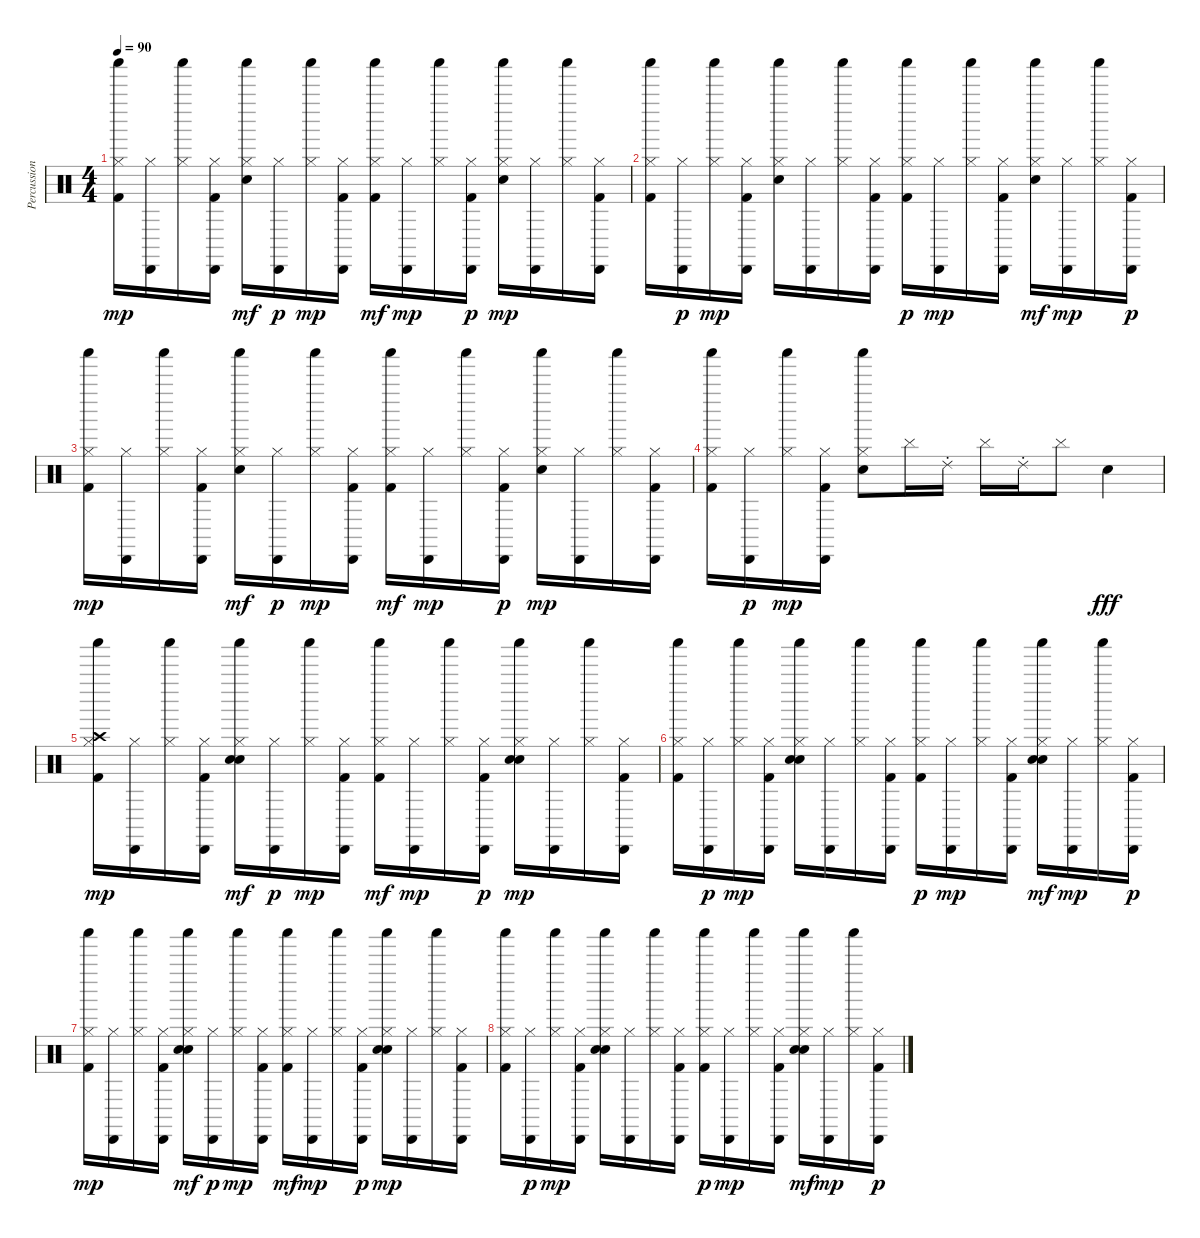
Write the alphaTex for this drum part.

\track ("Percussions" "Percussion") {instrument percussion}
\staff {score}
\articulation defaults
\ts (4 4)
\tempo 90
\clef neutral
\ks c
("Kick (hit) 2" "Hi-Hat (closed)" "Shaker (hit)").16{dy mp} ("Hi-Hat (closed)" "Cabasa (hit)").16 ("Hi-Hat (closed)" "Shaker (hit)").16 ("Kick (hit) 2" "Hi-Hat (closed)" "Cabasa (hit)").16 ("Electric Snare (hit)" "Hi-Hat (closed)" "Shaker (hit)").16{dy mf} ("Hi-Hat (closed)" "Cabasa (hit)").16{dy p} ("Hi-Hat (closed)" "Shaker (hit)").16{dy mp} ("Kick (hit) 2" "Hi-Hat (closed)" "Cabasa (hit)").16 ("Kick (hit) 2" "Hi-Hat (closed)" "Shaker (hit)").16{dy mf} ("Hi-Hat (closed)" "Cabasa (hit)").16{dy mp} ("Hi-Hat (closed)" "Shaker (hit)").16 ("Kick (hit) 2" "Hi-Hat (closed)" "Cabasa (hit)").16{dy p} ("Electric Snare (hit)" "Hi-Hat (closed)" "Shaker (hit)").16{dy mp} ("Hi-Hat (closed)" "Cabasa (hit)").16 ("Hi-Hat (closed)" "Shaker (hit)").16 ("Kick (hit) 2" "Hi-Hat (closed)" "Cabasa (hit)").16 |
("Kick (hit) 2" "Hi-Hat (closed)" "Shaker (hit)").16 ("Hi-Hat (closed)" "Cabasa (hit)").16{dy p} ("Hi-Hat (closed)" "Shaker (hit)").16{dy mp} ("Kick (hit) 2" "Hi-Hat (closed)" "Cabasa (hit)").16 ("Electric Snare (hit)" "Hi-Hat (closed)" "Shaker (hit)").16 ("Hi-Hat (closed)" "Cabasa (hit)").16 ("Hi-Hat (closed)" "Shaker (hit)").16 ("Kick (hit) 2" "Hi-Hat (closed)" "Cabasa (hit)").16 ("Kick (hit) 2" "Hi-Hat (closed)" "Shaker (hit)").16{dy p} ("Hi-Hat (closed)" "Cabasa (hit)").16{dy mp} ("Hi-Hat (closed)" "Shaker (hit)").16 ("Kick (hit) 2" "Hi-Hat (closed)" "Cabasa (hit)").16 ("Electric Snare (hit)" "Hi-Hat (closed)" "Shaker (hit)").16{dy mf} ("Hi-Hat (closed)" "Cabasa (hit)").16{dy mp} ("Hi-Hat (closed)" "Shaker (hit)").16 ("Kick (hit) 2" "Hi-Hat (closed)" "Cabasa (hit)").16{dy p} |
("Kick (hit) 2" "Hi-Hat (closed)" "Shaker (hit)").16{dy mp} ("Hi-Hat (closed)" "Cabasa (hit)").16 ("Hi-Hat (closed)" "Shaker (hit)").16 ("Kick (hit) 2" "Hi-Hat (closed)" "Cabasa (hit)").16 ("Electric Snare (hit)" "Hi-Hat (closed)" "Shaker (hit)").16{dy mf} ("Hi-Hat (closed)" "Cabasa (hit)").16{dy p} ("Hi-Hat (closed)" "Shaker (hit)").16{dy mp} ("Kick (hit) 2" "Hi-Hat (closed)" "Cabasa (hit)").16 ("Kick (hit) 2" "Hi-Hat (closed)" "Shaker (hit)").16{dy mf} ("Hi-Hat (closed)" "Cabasa (hit)").16{dy mp} ("Hi-Hat (closed)" "Shaker (hit)").16 ("Kick (hit) 2" "Hi-Hat (closed)" "Cabasa (hit)").16{dy p} ("Electric Snare (hit)" "Hi-Hat (closed)" "Shaker (hit)").16{dy mp} ("Hi-Hat (closed)" "Cabasa (hit)").16 ("Hi-Hat (closed)" "Shaker (hit)").16 ("Kick (hit) 2" "Hi-Hat (closed)" "Cabasa (hit)").16 |
("Kick (hit) 2" "Hi-Hat (closed)" "Shaker (hit)").16 ("Hi-Hat (closed)" "Cabasa (hit)").16{dy p} ("Hi-Hat (closed)" "Shaker (hit)").16{dy mp} ("Kick (hit) 2" "Hi-Hat (closed)" "Cabasa (hit)").16 ("Electric Snare (hit)" "Hi-Hat (closed)" "Shaker (hit)").8 "Cymbal (hit)".16 "Ride (choke) 2".16 "Cymbal (hit)".16 "Ride (choke) 2".16 "Cymbal (hit)".8 "Electric Snare (hit)".4{dy fff} |
("Kick (hit) 2" "Hi-Hat (closed)" "Crash high (hit)" "Shaker (hit)").16{dy mp} ("Hi-Hat (closed)" "Cabasa (hit)").16 ("Hi-Hat (closed)" "Shaker (hit)").16 ("Kick (hit) 2" "Hi-Hat (closed)" "Cabasa (hit)").16 ("Hand Clap (hit)" "Electric Snare (hit)" "Hi-Hat (closed)" "Shaker (hit)").16{dy mf} ("Hi-Hat (closed)" "Cabasa (hit)").16{dy p} ("Hi-Hat (closed)" "Shaker (hit)").16{dy mp} ("Kick (hit) 2" "Hi-Hat (closed)" "Cabasa (hit)").16 ("Kick (hit) 2" "Hi-Hat (closed)" "Shaker (hit)").16{dy mf} ("Hi-Hat (closed)" "Cabasa (hit)").16{dy mp} ("Hi-Hat (closed)" "Shaker (hit)").16 ("Kick (hit) 2" "Hi-Hat (closed)" "Cabasa (hit)").16{dy p} ("Hand Clap (hit)" "Electric Snare (hit)" "Hi-Hat (closed)" "Shaker (hit)").16{dy mp} ("Hi-Hat (closed)" "Cabasa (hit)").16 ("Hi-Hat (closed)" "Shaker (hit)").16 ("Kick (hit) 2" "Hi-Hat (closed)" "Cabasa (hit)").16 |
("Kick (hit) 2" "Hi-Hat (closed)" "Shaker (hit)").16 ("Hi-Hat (closed)" "Cabasa (hit)").16{dy p} ("Hi-Hat (closed)" "Shaker (hit)").16{dy mp} ("Kick (hit) 2" "Hi-Hat (closed)" "Cabasa (hit)").16 ("Hand Clap (hit)" "Electric Snare (hit)" "Hi-Hat (closed)" "Shaker (hit)").16 ("Hi-Hat (closed)" "Cabasa (hit)").16 ("Hi-Hat (closed)" "Shaker (hit)").16 ("Kick (hit) 2" "Hi-Hat (closed)" "Cabasa (hit)").16 ("Kick (hit) 2" "Hi-Hat (closed)" "Shaker (hit)").16{dy p} ("Hi-Hat (closed)" "Cabasa (hit)").16{dy mp} ("Hi-Hat (closed)" "Shaker (hit)").16 ("Kick (hit) 2" "Hi-Hat (closed)" "Cabasa (hit)").16 ("Hand Clap (hit)" "Electric Snare (hit)" "Hi-Hat (closed)" "Shaker (hit)").16{dy mf} ("Hi-Hat (closed)" "Cabasa (hit)").16{dy mp} ("Hi-Hat (closed)" "Shaker (hit)").16 ("Kick (hit) 2" "Hi-Hat (closed)" "Cabasa (hit)").16{dy p} |
("Kick (hit) 2" "Hi-Hat (closed)" "Shaker (hit)").16{dy mp} ("Hi-Hat (closed)" "Cabasa (hit)").16 ("Hi-Hat (closed)" "Shaker (hit)").16 ("Kick (hit) 2" "Hi-Hat (closed)" "Cabasa (hit)").16 ("Hand Clap (hit)" "Electric Snare (hit)" "Hi-Hat (closed)" "Shaker (hit)").16{dy mf} ("Hi-Hat (closed)" "Cabasa (hit)").16{dy p} ("Hi-Hat (closed)" "Shaker (hit)").16{dy mp} ("Kick (hit) 2" "Hi-Hat (closed)" "Cabasa (hit)").16 ("Kick (hit) 2" "Hi-Hat (closed)" "Shaker (hit)").16{dy mf} ("Hi-Hat (closed)" "Cabasa (hit)").16{dy mp} ("Hi-Hat (closed)" "Shaker (hit)").16 ("Kick (hit) 2" "Hi-Hat (closed)" "Cabasa (hit)").16{dy p} ("Hand Clap (hit)" "Electric Snare (hit)" "Hi-Hat (closed)" "Shaker (hit)").16{dy mp} ("Hi-Hat (closed)" "Cabasa (hit)").16 ("Hi-Hat (closed)" "Shaker (hit)").16 ("Kick (hit) 2" "Hi-Hat (closed)" "Cabasa (hit)").16 |
("Kick (hit) 2" "Hi-Hat (closed)" "Shaker (hit)").16 ("Hi-Hat (closed)" "Cabasa (hit)").16{dy p} ("Hi-Hat (closed)" "Shaker (hit)").16{dy mp} ("Kick (hit) 2" "Hi-Hat (closed)" "Cabasa (hit)").16 ("Hand Clap (hit)" "Electric Snare (hit)" "Hi-Hat (closed)" "Shaker (hit)").16 ("Hi-Hat (closed)" "Cabasa (hit)").16 ("Hi-Hat (closed)" "Shaker (hit)").16 ("Kick (hit) 2" "Hi-Hat (closed)" "Cabasa (hit)").16 ("Kick (hit) 2" "Hi-Hat (closed)" "Shaker (hit)").16{dy p} ("Hi-Hat (closed)" "Cabasa (hit)").16{dy mp} ("Hi-Hat (closed)" "Shaker (hit)").16 ("Kick (hit) 2" "Hi-Hat (closed)" "Cabasa (hit)").16 ("Hand Clap (hit)" "Electric Snare (hit)" "Hi-Hat (closed)" "Shaker (hit)").16{dy mf} ("Hi-Hat (closed)" "Cabasa (hit)").16{dy mp} ("Hi-Hat (closed)" "Shaker (hit)").16 ("Kick (hit) 2" "Hi-Hat (closed)" "Cabasa (hit)").16{dy p}
